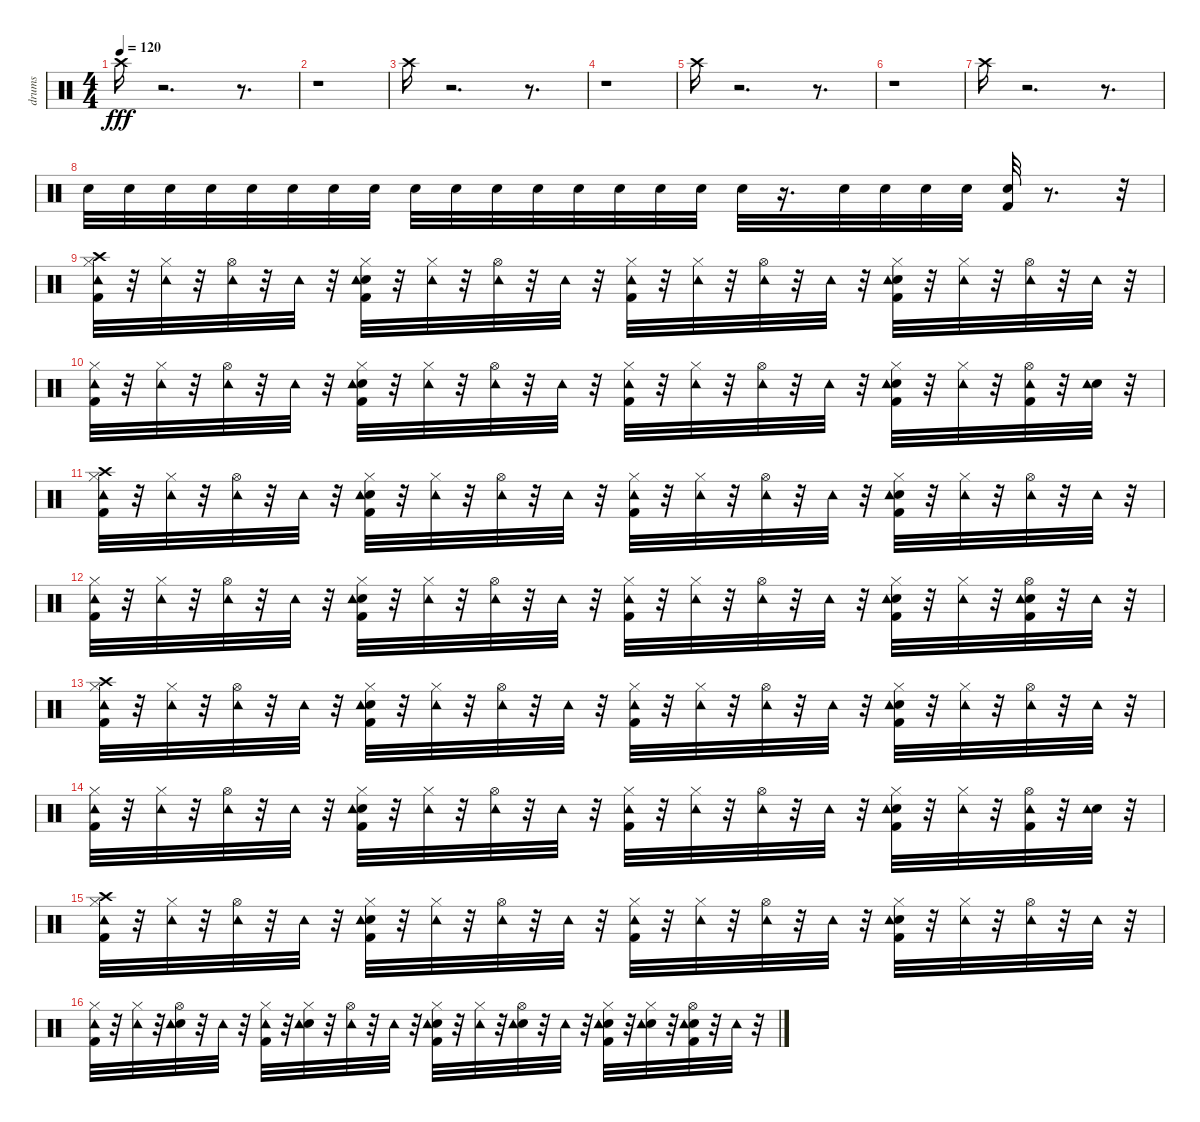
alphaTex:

\track ("drums" "drums") {instrument percussion}
\staff {score}
\articulation defaults
\ts (4 4)
\tempo 120
\clef neutral
\ks c "Crash high (hit)".16{dy fff}
r.2{d} r.8{d} |
r.1 |
"Crash high (hit)".16 r.2{d} r.8{d} |
r.1 |
"Crash high (hit)".16 r.2{d} r.8{d} |
r.1 |
"Crash high (hit)".16 r.2{d} r.8{d} |
"Snare (hit) 2".32 "Snare (hit) 2".32 "Snare (hit) 2".32 "Snare (hit) 2".32 "Snare (hit) 2".32 "Snare (hit) 2".32 "Snare (hit) 2".32 "Snare (hit) 2".32 "Snare (hit) 2".32 "Snare (hit) 2".32 "Snare (hit) 2".32 "Snare (hit) 2".32 "Snare (hit) 2".32 "Snare (hit) 2".32 "Snare (hit) 2".32 "Snare (hit) 2".32 "Snare (hit) 2".32 r.16{d} "Snare (hit) 2".32 "Snare (hit) 2".32 "Snare (hit) 2".32 "Snare (hit) 2".32 ("Snare (hit) 2" "Kick (hit) 2").32 r.8{d} r.32 |
("Crash high (hit)" "Kick (hit) 2" "Hi-Hat (closed)" "Tambourine (hit)").32 r.32 ("Hi-Hat (closed)" "Tambourine (hit)").32 r.32 ("Hi-Hat (open)" "Tambourine (hit)").32 r.32 "Tambourine (hit)".32 r.32 ("Snare (hit) 2" "Kick (hit) 2" "Hi-Hat (closed)" "Tambourine (hit)").32 r.32 ("Hi-Hat (closed)" "Tambourine (hit)").32 r.32 ("Hi-Hat (open)" "Tambourine (hit)").32 r.32 "Tambourine (hit)".32 r.32 ("Kick (hit) 2" "Hi-Hat (closed)" "Tambourine (hit)").32 r.32 ("Hi-Hat (closed)" "Tambourine (hit)").32 r.32 ("Hi-Hat (open)" "Tambourine (hit)").32 r.32 "Tambourine (hit)".32 r.32 ("Snare (hit) 2" "Kick (hit) 2" "Hi-Hat (closed)" "Tambourine (hit)").32 r.32 ("Hi-Hat (closed)" "Tambourine (hit)").32 r.32 ("Hi-Hat (open)" "Tambourine (hit)").32 r.32 "Tambourine (hit)".32 r.32 |
("Kick (hit) 2" "Hi-Hat (closed)" "Tambourine (hit)").32 r.32 ("Hi-Hat (closed)" "Tambourine (hit)").32 r.32 ("Hi-Hat (open)" "Tambourine (hit)").32 r.32 "Tambourine (hit)".32 r.32 ("Snare (hit) 2" "Kick (hit) 2" "Hi-Hat (closed)" "Tambourine (hit)").32 r.32 ("Hi-Hat (closed)" "Tambourine (hit)").32 r.32 ("Hi-Hat (open)" "Tambourine (hit)").32 r.32 "Tambourine (hit)".32 r.32 ("Kick (hit) 2" "Hi-Hat (closed)" "Tambourine (hit)").32 r.32 ("Hi-Hat (closed)" "Tambourine (hit)").32 r.32 ("Hi-Hat (open)" "Tambourine (hit)").32 r.32 "Tambourine (hit)".32 r.32 ("Snare (hit) 2" "Kick (hit) 2" "Hi-Hat (closed)" "Tambourine (hit)").32 r.32 ("Hi-Hat (closed)" "Tambourine (hit)").32 r.32 ("Kick (hit) 2" "Hi-Hat (open)" "Tambourine (hit)").32 r.32 ("Snare (hit) 2" "Tambourine (hit)").32 r.32 |
("Crash high (hit)" "Kick (hit) 2" "Hi-Hat (closed)" "Tambourine (hit)").32 r.32 ("Hi-Hat (closed)" "Tambourine (hit)").32 r.32 ("Hi-Hat (open)" "Tambourine (hit)").32 r.32 "Tambourine (hit)".32 r.32 ("Snare (hit) 2" "Kick (hit) 2" "Hi-Hat (closed)" "Tambourine (hit)").32 r.32 ("Hi-Hat (closed)" "Tambourine (hit)").32 r.32 ("Hi-Hat (open)" "Tambourine (hit)").32 r.32 "Tambourine (hit)".32 r.32 ("Kick (hit) 2" "Hi-Hat (closed)" "Tambourine (hit)").32 r.32 ("Hi-Hat (closed)" "Tambourine (hit)").32 r.32 ("Hi-Hat (open)" "Tambourine (hit)").32 r.32 "Tambourine (hit)".32 r.32 ("Snare (hit) 2" "Kick (hit) 2" "Hi-Hat (closed)" "Tambourine (hit)").32 r.32 ("Hi-Hat (closed)" "Tambourine (hit)").32 r.32 ("Hi-Hat (open)" "Tambourine (hit)").32 r.32 "Tambourine (hit)".32 r.32 |
("Kick (hit) 2" "Hi-Hat (closed)" "Tambourine (hit)").32 r.32 ("Hi-Hat (closed)" "Tambourine (hit)").32 r.32 ("Hi-Hat (open)" "Tambourine (hit)").32 r.32 "Tambourine (hit)".32 r.32 ("Snare (hit) 2" "Kick (hit) 2" "Hi-Hat (closed)" "Tambourine (hit)").32 r.32 ("Hi-Hat (closed)" "Tambourine (hit)").32 r.32 ("Hi-Hat (open)" "Tambourine (hit)").32 r.32 "Tambourine (hit)".32 r.32 ("Kick (hit) 2" "Hi-Hat (closed)" "Tambourine (hit)").32 r.32 ("Hi-Hat (closed)" "Tambourine (hit)").32 r.32 ("Hi-Hat (open)" "Tambourine (hit)").32 r.32 "Tambourine (hit)".32 r.32 ("Snare (hit) 2" "Kick (hit) 2" "Hi-Hat (closed)" "Tambourine (hit)").32 r.32 ("Hi-Hat (closed)" "Tambourine (hit)").32 r.32 ("Kick (hit) 2" "Snare (hit) 2" "Hi-Hat (open)" "Tambourine (hit)").32 r.32 "Tambourine (hit)".32 r.32 |
("Crash high (hit)" "Kick (hit) 2" "Hi-Hat (closed)" "Tambourine (hit)").32 r.32 ("Hi-Hat (closed)" "Tambourine (hit)").32 r.32 ("Hi-Hat (open)" "Tambourine (hit)").32 r.32 "Tambourine (hit)".32 r.32 ("Snare (hit) 2" "Kick (hit) 2" "Hi-Hat (closed)" "Tambourine (hit)").32 r.32 ("Hi-Hat (closed)" "Tambourine (hit)").32 r.32 ("Hi-Hat (open)" "Tambourine (hit)").32 r.32 "Tambourine (hit)".32 r.32 ("Kick (hit) 2" "Hi-Hat (closed)" "Tambourine (hit)").32 r.32 ("Hi-Hat (closed)" "Tambourine (hit)").32 r.32 ("Hi-Hat (open)" "Tambourine (hit)").32 r.32 "Tambourine (hit)".32 r.32 ("Snare (hit) 2" "Kick (hit) 2" "Hi-Hat (closed)" "Tambourine (hit)").32 r.32 ("Hi-Hat (closed)" "Tambourine (hit)").32 r.32 ("Hi-Hat (open)" "Tambourine (hit)").32 r.32 "Tambourine (hit)".32 r.32 |
("Kick (hit) 2" "Hi-Hat (closed)" "Tambourine (hit)").32 r.32 ("Hi-Hat (closed)" "Tambourine (hit)").32 r.32 ("Hi-Hat (open)" "Tambourine (hit)").32 r.32 "Tambourine (hit)".32 r.32 ("Snare (hit) 2" "Kick (hit) 2" "Hi-Hat (closed)" "Tambourine (hit)").32 r.32 ("Hi-Hat (closed)" "Tambourine (hit)").32 r.32 ("Hi-Hat (open)" "Tambourine (hit)").32 r.32 "Tambourine (hit)".32 r.32 ("Kick (hit) 2" "Hi-Hat (closed)" "Tambourine (hit)").32 r.32 ("Hi-Hat (closed)" "Tambourine (hit)").32 r.32 ("Hi-Hat (open)" "Tambourine (hit)").32 r.32 "Tambourine (hit)".32 r.32 ("Snare (hit) 2" "Kick (hit) 2" "Hi-Hat (closed)" "Tambourine (hit)").32 r.32 ("Hi-Hat (closed)" "Tambourine (hit)").32 r.32 ("Kick (hit) 2" "Hi-Hat (open)" "Tambourine (hit)").32 r.32 ("Snare (hit) 2" "Tambourine (hit)").32 r.32 |
("Crash high (hit)" "Kick (hit) 2" "Hi-Hat (closed)" "Tambourine (hit)").32 r.32 ("Hi-Hat (closed)" "Tambourine (hit)").32 r.32 ("Hi-Hat (open)" "Tambourine (hit)").32 r.32 "Tambourine (hit)".32 r.32 ("Snare (hit) 2" "Kick (hit) 2" "Hi-Hat (closed)" "Tambourine (hit)").32 r.32 ("Hi-Hat (closed)" "Tambourine (hit)").32 r.32 ("Hi-Hat (open)" "Tambourine (hit)").32 r.32 "Tambourine (hit)".32 r.32 ("Kick (hit) 2" "Hi-Hat (closed)" "Tambourine (hit)").32 r.32 ("Hi-Hat (closed)" "Tambourine (hit)").32 r.32 ("Hi-Hat (open)" "Tambourine (hit)").32 r.32 "Tambourine (hit)".32 r.32 ("Snare (hit) 2" "Kick (hit) 2" "Hi-Hat (closed)" "Tambourine (hit)").32 r.32 ("Hi-Hat (closed)" "Tambourine (hit)").32 r.32 ("Hi-Hat (open)" "Tambourine (hit)").32 r.32 "Tambourine (hit)".32 r.32 |
("Kick (hit) 2" "Hi-Hat (closed)" "Tambourine (hit)").32 r.32 ("Hi-Hat (closed)" "Tambourine (hit)").32 r.32 ("Snare (hit) 2" "Hi-Hat (open)" "Tambourine (hit)").32 r.32 "Tambourine (hit)".32 r.32 ("Kick (hit) 2" "Hi-Hat (closed)" "Tambourine (hit)").32 r.32 ("Snare (hit) 2" "Hi-Hat (closed)" "Tambourine (hit)").32 r.32 ("Hi-Hat (open)" "Tambourine (hit)").32 r.32 "Tambourine (hit)".32 r.32 ("Kick (hit) 2" "Snare (hit) 2" "Hi-Hat (closed)" "Tambourine (hit)").32 r.32 ("Hi-Hat (closed)" "Tambourine (hit)").32 r.32 ("Snare (hit) 2" "Hi-Hat (open)" "Tambourine (hit)").32 r.32 "Tambourine (hit)".32 r.32 ("Snare (hit) 2" "Kick (hit) 2" "Hi-Hat (closed)" "Tambourine (hit)").32 r.32 ("Snare (hit) 2" "Hi-Hat (closed)" "Tambourine (hit)").32 r.32 ("Kick (hit) 2" "Snare (hit) 2" "Hi-Hat (open)" "Tambourine (hit)").32 r.32 "Tambourine (hit)".32 r.32
